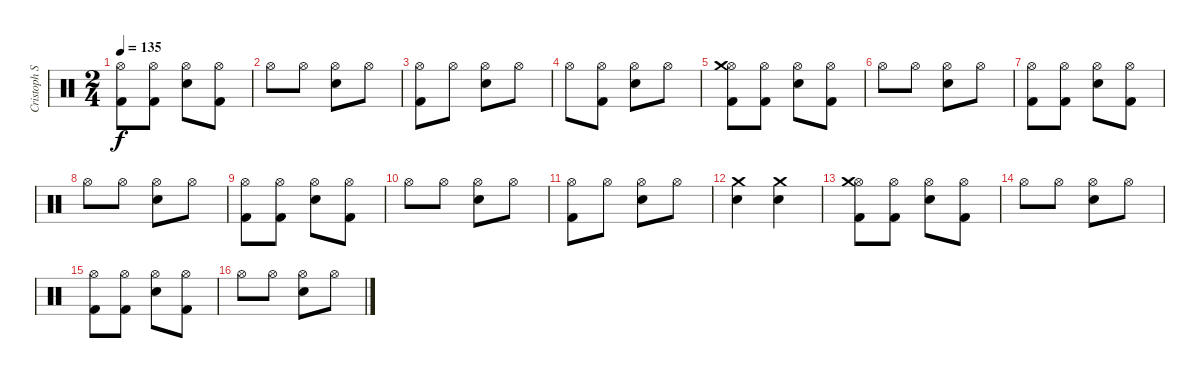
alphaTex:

\track ("Cristoph Schneider / Drums" "Cristoph S") {instrument percussion}
\staff {score}
\articulation defaults
\ts (2 4)
\tempo 135
\clef neutral
\ks c
("Hi-Hat (open)" "Kick (hit) 2").8{dy f} ("Hi-Hat (open)" "Kick (hit) 2").8 ("Hi-Hat (open)" "Electric Snare (hit)").8 ("Hi-Hat (open)" "Kick (hit) 2").8 |
"Hi-Hat (open)".8 "Hi-Hat (open)".8 ("Hi-Hat (open)" "Electric Snare (hit)").8 "Hi-Hat (open)".8 |
("Kick (hit) 2" "Hi-Hat (open)").8 "Hi-Hat (open)".8 ("Hi-Hat (open)" "Electric Snare (hit)").8 "Hi-Hat (open)".8 |
"Hi-Hat (open)".8 ("Hi-Hat (open)" "Kick (hit) 2").8 ("Hi-Hat (open)" "Electric Snare (hit)").8 "Hi-Hat (open)".8 |
("Hi-Hat (open)" "Kick (hit) 2" "Crash medium (hit)").8 ("Hi-Hat (open)" "Kick (hit) 2").8 ("Hi-Hat (open)" "Electric Snare (hit)").8 ("Kick (hit) 2" "Hi-Hat (open)").8 |
"Hi-Hat (open)".8 "Hi-Hat (open)".8 ("Electric Snare (hit)" "Hi-Hat (open)").8 "Hi-Hat (open)".8 |
("Hi-Hat (open)" "Kick (hit) 2").8 ("Hi-Hat (open)" "Kick (hit) 2").8 ("Hi-Hat (open)" "Electric Snare (hit)").8 ("Hi-Hat (open)" "Kick (hit) 2").8 |
"Hi-Hat (open)".8 "Hi-Hat (open)".8 ("Electric Snare (hit)" "Hi-Hat (open)").8 "Hi-Hat (open)".8 |
("Hi-Hat (open)" "Kick (hit) 2").8 ("Hi-Hat (open)" "Kick (hit) 2").8 ("Hi-Hat (open)" "Electric Snare (hit)").8 ("Hi-Hat (open)" "Kick (hit) 2").8 |
"Hi-Hat (open)".8 "Hi-Hat (open)".8 ("Hi-Hat (open)" "Electric Snare (hit)").8 "Hi-Hat (open)".8 |
("Kick (hit) 2" "Hi-Hat (open)").8 "Hi-Hat (open)".8 ("Hi-Hat (open)" "Electric Snare (hit)").8 "Hi-Hat (open)".8 |
("Crash medium (hit)" "Electric Snare (hit)").4 ("Crash medium (hit)" "Electric Snare (hit)").4 |
("Hi-Hat (open)" "Kick (hit) 2" "Crash medium (hit)").8 ("Hi-Hat (open)" "Kick (hit) 2").8 ("Hi-Hat (open)" "Electric Snare (hit)").8 ("Kick (hit) 2" "Hi-Hat (open)").8 |
"Hi-Hat (open)".8 "Hi-Hat (open)".8 ("Electric Snare (hit)" "Hi-Hat (open)").8 "Hi-Hat (open)".8 |
("Hi-Hat (open)" "Kick (hit) 2").8 ("Hi-Hat (open)" "Kick (hit) 2").8 ("Hi-Hat (open)" "Electric Snare (hit)").8 ("Hi-Hat (open)" "Kick (hit) 2").8 |
"Hi-Hat (open)".8 "Hi-Hat (open)".8 ("Electric Snare (hit)" "Hi-Hat (open)").8 "Hi-Hat (open)".8
